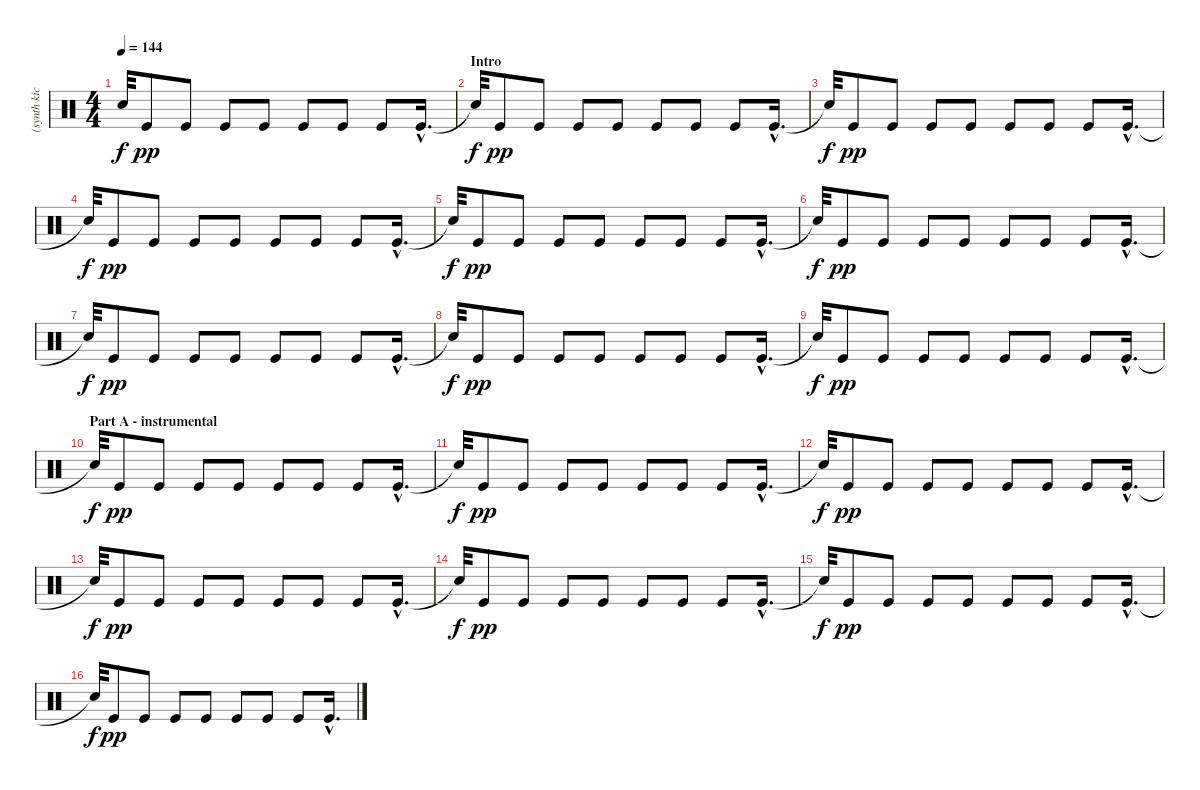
\track ("(synth kick loop reverb)" "(synth kic") {instrument percussion}
\staff {score}
\articulation defaults
\ts (4 4)
\tempo 144
\clef neutral
\ks c "Snare (hit)"{t}.32{dy f} "Kick (hit)".8{dy pp} "Kick (hit)".8 "Kick (hit)".8 "Kick (hit)".8 "Kick (hit)".8 "Kick (hit)".8 "Kick (hit)".8 "Kick (hit)"{hac}.16{d}
|
\section ("" "Intro")
"Snare (hit)"{t}.32{dy f} "Kick (hit)".8{dy pp} "Kick (hit)".8 "Kick (hit)".8 "Kick (hit)".8 "Kick (hit)".8 "Kick (hit)".8 "Kick (hit)".8 "Kick (hit)"{hac}.16{d} |
"Snare (hit)"{t}.32{dy f} "Kick (hit)".8{dy pp} "Kick (hit)".8 "Kick (hit)".8 "Kick (hit)".8 "Kick (hit)".8 "Kick (hit)".8 "Kick (hit)".8 "Kick (hit)"{hac}.16{d} |
"Snare (hit)"{t}.32{dy f} "Kick (hit)".8{dy pp} "Kick (hit)".8 "Kick (hit)".8 "Kick (hit)".8 "Kick (hit)".8 "Kick (hit)".8 "Kick (hit)".8 "Kick (hit)"{hac}.16{d} |
"Snare (hit)"{t}.32{dy f} "Kick (hit)".8{dy pp} "Kick (hit)".8 "Kick (hit)".8 "Kick (hit)".8 "Kick (hit)".8 "Kick (hit)".8 "Kick (hit)".8 "Kick (hit)"{hac}.16{d} |
"Snare (hit)"{t}.32{dy f} "Kick (hit)".8{dy pp} "Kick (hit)".8 "Kick (hit)".8 "Kick (hit)".8 "Kick (hit)".8 "Kick (hit)".8 "Kick (hit)".8 "Kick (hit)"{hac}.16{d} |
"Snare (hit)"{t}.32{dy f} "Kick (hit)".8{dy pp} "Kick (hit)".8 "Kick (hit)".8 "Kick (hit)".8 "Kick (hit)".8 "Kick (hit)".8 "Kick (hit)".8 "Kick (hit)"{hac}.16{d} |
"Snare (hit)"{t}.32{dy f} "Kick (hit)".8{dy pp} "Kick (hit)".8 "Kick (hit)".8 "Kick (hit)".8 "Kick (hit)".8 "Kick (hit)".8 "Kick (hit)".8 "Kick (hit)"{hac}.16{d} |
"Snare (hit)"{t}.32{dy f} "Kick (hit)".8{dy pp} "Kick (hit)".8 "Kick (hit)".8 "Kick (hit)".8 "Kick (hit)".8 "Kick (hit)".8 "Kick (hit)".8 "Kick (hit)"{hac}.16{d} |
\section ("" "Part A - instrumental")
"Snare (hit)"{t}.32{dy f} "Kick (hit)".8{dy pp} "Kick (hit)".8 "Kick (hit)".8 "Kick (hit)".8 "Kick (hit)".8 "Kick (hit)".8 "Kick (hit)".8 "Kick (hit)"{hac}.16{d} |
"Snare (hit)"{t}.32{dy f} "Kick (hit)".8{dy pp} "Kick (hit)".8 "Kick (hit)".8 "Kick (hit)".8 "Kick (hit)".8 "Kick (hit)".8 "Kick (hit)".8 "Kick (hit)"{hac}.16{d} |
"Snare (hit)"{t}.32{dy f} "Kick (hit)".8{dy pp} "Kick (hit)".8 "Kick (hit)".8 "Kick (hit)".8 "Kick (hit)".8 "Kick (hit)".8 "Kick (hit)".8 "Kick (hit)"{hac}.16{d} |
"Snare (hit)"{t}.32{dy f} "Kick (hit)".8{dy pp} "Kick (hit)".8 "Kick (hit)".8 "Kick (hit)".8 "Kick (hit)".8 "Kick (hit)".8 "Kick (hit)".8 "Kick (hit)"{hac}.16{d} |
"Snare (hit)"{t}.32{dy f} "Kick (hit)".8{dy pp} "Kick (hit)".8 "Kick (hit)".8 "Kick (hit)".8 "Kick (hit)".8 "Kick (hit)".8 "Kick (hit)".8 "Kick (hit)"{hac}.16{d} |
"Snare (hit)"{t}.32{dy f} "Kick (hit)".8{dy pp} "Kick (hit)".8 "Kick (hit)".8 "Kick (hit)".8 "Kick (hit)".8 "Kick (hit)".8 "Kick (hit)".8 "Kick (hit)"{hac}.16{d} |
"Snare (hit)"{t}.32{dy f} "Kick (hit)".8{dy pp} "Kick (hit)".8 "Kick (hit)".8 "Kick (hit)".8 "Kick (hit)".8 "Kick (hit)".8 "Kick (hit)".8 "Kick (hit)"{hac}.16{d}
